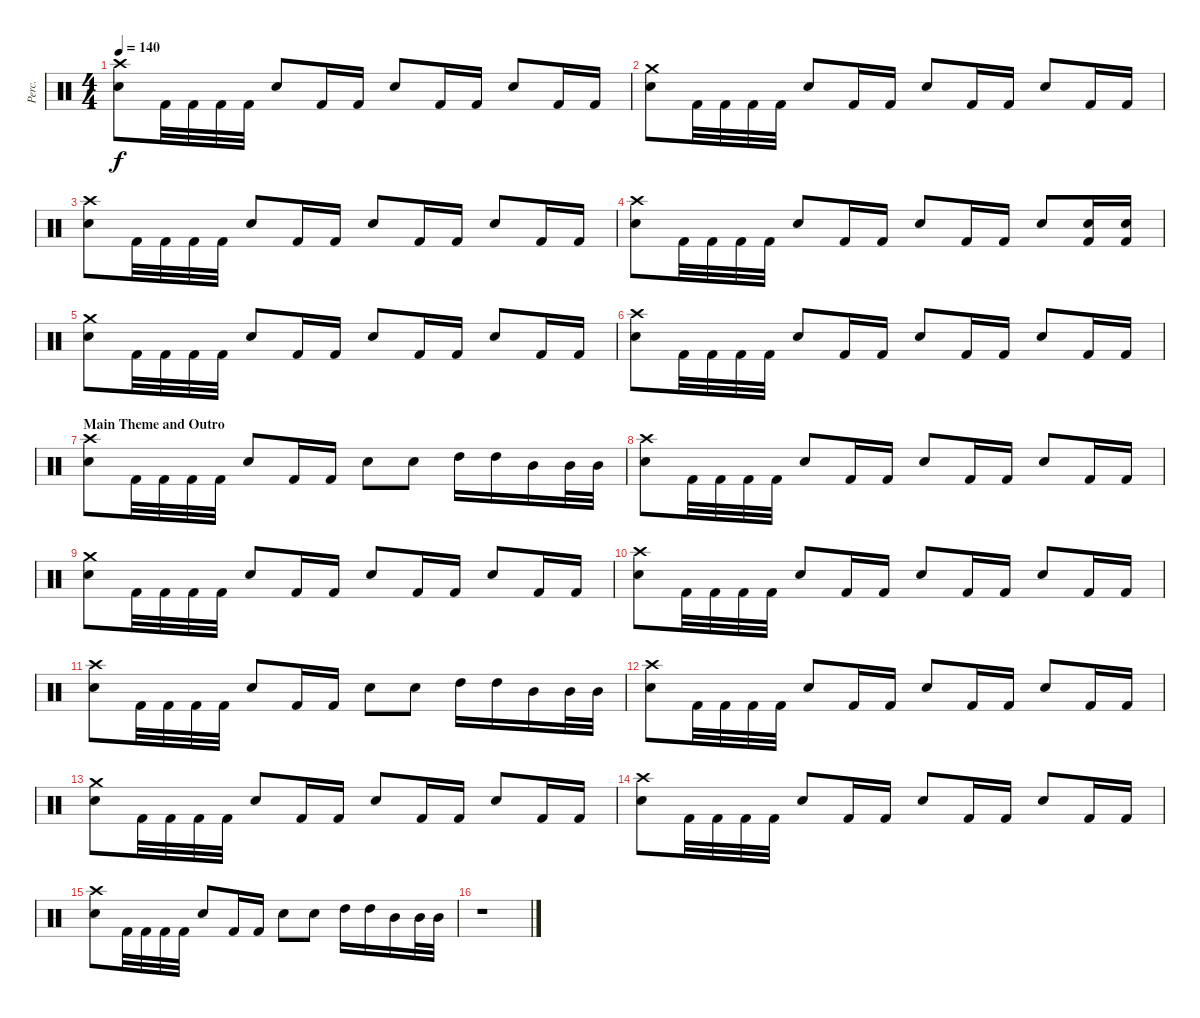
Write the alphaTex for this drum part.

\track ("Perc." "Perc.") {instrument percussion}
\staff {score}
\articulation defaults
\ts (4 4)
\tempo 140
\clef neutral
\ks c
("Crash high (hit)" "Electric Snare (hit)").8{dy f} "Kick (hit) 2".32 "Kick (hit) 2".32 "Kick (hit) 2".32 "Kick (hit) 2".32 "Electric Snare (hit)".8 "Kick (hit) 2".16 "Kick (hit) 2".16 "Electric Snare (hit)".8 "Kick (hit) 2".16 "Kick (hit) 2".16 "Electric Snare (hit)".8 "Kick (hit) 2".16 "Kick (hit) 2".16 |
("Crash medium (hit)" "Electric Snare (hit)").8 "Kick (hit) 2".32 "Kick (hit) 2".32 "Kick (hit) 2".32 "Kick (hit) 2".32 "Electric Snare (hit)".8 "Kick (hit) 2".16 "Kick (hit) 2".16 "Electric Snare (hit)".8 "Kick (hit) 2".16 "Kick (hit) 2".16 "Electric Snare (hit)".8 "Kick (hit) 2".16 "Kick (hit) 2".16 |
("Crash high (hit)" "Electric Snare (hit)").8 "Kick (hit) 2".32 "Kick (hit) 2".32 "Kick (hit) 2".32 "Kick (hit) 2".32 "Electric Snare (hit)".8 "Kick (hit) 2".16 "Kick (hit) 2".16 "Electric Snare (hit)".8 "Kick (hit) 2".16 "Kick (hit) 2".16 "Electric Snare (hit)".8 "Kick (hit) 2".16 "Kick (hit) 2".16 |
("Crash high (hit)" "Electric Snare (hit)").8 "Kick (hit) 2".32 "Kick (hit) 2".32 "Kick (hit) 2".32 "Kick (hit) 2".32 "Electric Snare (hit)".8 "Kick (hit) 2".16 "Kick (hit) 2".16 "Electric Snare (hit)".8 "Kick (hit) 2".16 "Kick (hit) 2".16 "Electric Snare (hit)".8 ("Electric Snare (hit)" "Kick (hit) 2").16 ("Electric Snare (hit)" "Kick (hit) 2").16 |
("Crash medium (hit)" "Electric Snare (hit)").8 "Kick (hit) 2".32 "Kick (hit) 2".32 "Kick (hit) 2".32 "Kick (hit) 2".32 "Electric Snare (hit)".8 "Kick (hit) 2".16 "Kick (hit) 2".16 "Electric Snare (hit)".8 "Kick (hit) 2".16 "Kick (hit) 2".16 "Electric Snare (hit)".8 "Kick (hit) 2".16 "Kick (hit) 2".16 |
("Crash high (hit)" "Electric Snare (hit)").8 "Kick (hit) 2".32 "Kick (hit) 2".32 "Kick (hit) 2".32 "Kick (hit) 2".32 "Electric Snare (hit)".8 "Kick (hit) 2".16 "Kick (hit) 2".16 "Electric Snare (hit)".8 "Kick (hit) 2".16 "Kick (hit) 2".16 "Electric Snare (hit)".8 "Kick (hit) 2".16 "Kick (hit) 2".16 |
\section ("" "Main Theme and Outro")
("Crash high (hit)" "Electric Snare (hit)").8 "Kick (hit) 2".32 "Kick (hit) 2".32 "Kick (hit) 2".32 "Kick (hit) 2".32 "Electric Snare (hit)".8 "Kick (hit) 2".16 "Kick (hit) 2".16 "Electric Snare (hit)".8 "Electric Snare (hit)".8 "High Tom (hit)".16 "High Tom (hit)".16 "Mid Tom (hit)".16 "Mid Tom (hit)".32 "Mid Tom (hit)".32 |
("Crash high (hit)" "Electric Snare (hit)").8 "Kick (hit) 2".32 "Kick (hit) 2".32 "Kick (hit) 2".32 "Kick (hit) 2".32 "Electric Snare (hit)".8 "Kick (hit) 2".16 "Kick (hit) 2".16 "Electric Snare (hit)".8 "Kick (hit) 2".16 "Kick (hit) 2".16 "Electric Snare (hit)".8 "Kick (hit) 2".16 "Kick (hit) 2".16 |
("Crash medium (hit)" "Electric Snare (hit)").8{volume 6} "Kick (hit) 2".32 "Kick (hit) 2".32 "Kick (hit) 2".32 "Kick (hit) 2".32 "Electric Snare (hit)".8 "Kick (hit) 2".16 "Kick (hit) 2".16 "Electric Snare (hit)".8 "Kick (hit) 2".16 "Kick (hit) 2".16 "Electric Snare (hit)".8 "Kick (hit) 2".16 "Kick (hit) 2".16 |
("Crash high (hit)" "Electric Snare (hit)").8 "Kick (hit) 2".32 "Kick (hit) 2".32 "Kick (hit) 2".32 "Kick (hit) 2".32 "Electric Snare (hit)".8 "Kick (hit) 2".16 "Kick (hit) 2".16 "Electric Snare (hit)".8 "Kick (hit) 2".16 "Kick (hit) 2".16 "Electric Snare (hit)".8 "Kick (hit) 2".16 "Kick (hit) 2".16 |
("Crash high (hit)" "Electric Snare (hit)").8 "Kick (hit) 2".32 "Kick (hit) 2".32 "Kick (hit) 2".32 "Kick (hit) 2".32 "Electric Snare (hit)".8 "Kick (hit) 2".16 "Kick (hit) 2".16 "Electric Snare (hit)".8 "Electric Snare (hit)".8 "High Tom (hit)".16 "High Tom (hit)".16 "Mid Tom (hit)".16 "Mid Tom (hit)".32 "Mid Tom (hit)".32 |
("Crash high (hit)" "Electric Snare (hit)").8 "Kick (hit) 2".32 "Kick (hit) 2".32 "Kick (hit) 2".32 "Kick (hit) 2".32 "Electric Snare (hit)".8 "Kick (hit) 2".16 "Kick (hit) 2".16 "Electric Snare (hit)".8 "Kick (hit) 2".16 "Kick (hit) 2".16 "Electric Snare (hit)".8 "Kick (hit) 2".16 "Kick (hit) 2".16 |
("Crash medium (hit)" "Electric Snare (hit)").8{volume 0} "Kick (hit) 2".32 "Kick (hit) 2".32 "Kick (hit) 2".32 "Kick (hit) 2".32 "Electric Snare (hit)".8 "Kick (hit) 2".16 "Kick (hit) 2".16 "Electric Snare (hit)".8 "Kick (hit) 2".16 "Kick (hit) 2".16 "Electric Snare (hit)".8 "Kick (hit) 2".16 "Kick (hit) 2".16 |
("Crash high (hit)" "Electric Snare (hit)").8 "Kick (hit) 2".32 "Kick (hit) 2".32 "Kick (hit) 2".32 "Kick (hit) 2".32 "Electric Snare (hit)".8 "Kick (hit) 2".16 "Kick (hit) 2".16 "Electric Snare (hit)".8 "Kick (hit) 2".16 "Kick (hit) 2".16 "Electric Snare (hit)".8 "Kick (hit) 2".16 "Kick (hit) 2".16 |
("Crash high (hit)" "Electric Snare (hit)").8 "Kick (hit) 2".32 "Kick (hit) 2".32 "Kick (hit) 2".32 "Kick (hit) 2".32 "Electric Snare (hit)".8 "Kick (hit) 2".16 "Kick (hit) 2".16 "Electric Snare (hit)".8 "Electric Snare (hit)".8 "High Tom (hit)".16 "High Tom (hit)".16 "Mid Tom (hit)".16 "Mid Tom (hit)".32 "Mid Tom (hit)".32 |
r.1
